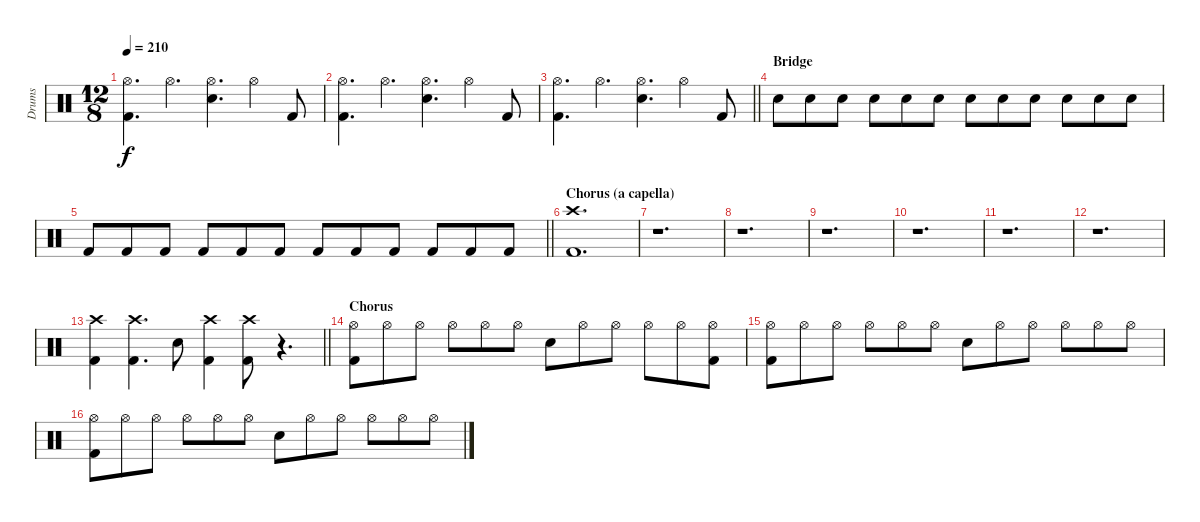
\track ("Drums" "Drums") {instrument percussion}
\staff {score}
\articulation defaults
\ts (12 8)
\tempo 210
\clef neutral
\ks c
("Hi-Hat (open)" "Kick (hit) 2").4{d dy f} "Hi-Hat (open)".4{d} ("Hi-Hat (open)" "Electric Snare (hit)").4{d} "Hi-Hat (open)".4 "Kick (hit) 2".8 |
("Hi-Hat (open)" "Kick (hit) 2").4{d} "Hi-Hat (open)".4{d} ("Hi-Hat (open)" "Electric Snare (hit)").4{d} "Hi-Hat (open)".4 "Kick (hit) 2".8 |
\barLineRight lightlight
("Hi-Hat (open)" "Kick (hit) 2").4{d} "Hi-Hat (open)".4{d} ("Hi-Hat (open)" "Electric Snare (hit)").4{d} "Hi-Hat (open)".4 "Kick (hit) 2".8 |
\section ("" "Bridge")
"Electric Snare (hit)".8 "Electric Snare (hit)".8 "Electric Snare (hit)".8 "Electric Snare (hit)".8 "Electric Snare (hit)".8 "Electric Snare (hit)".8 "Electric Snare (hit)".8 "Electric Snare (hit)".8 "Electric Snare (hit)".8 "Electric Snare (hit)".8 "Electric Snare (hit)".8 "Electric Snare (hit)".8 |
\barLineRight lightlight "Kick (hit) 2".8 "Kick (hit) 2".8 "Kick (hit) 2".8 "Kick (hit) 2".8 "Kick (hit) 2".8 "Kick (hit) 2".8 "Kick (hit) 2".8 "Kick (hit) 2".8 "Kick (hit) 2".8 "Kick (hit) 2".8 "Kick (hit) 2".8 "Kick (hit) 2".8
|
\section ("" "Chorus (a capella)")
("Crash high (hit)" "Kick (hit) 2").1{d} |
r.1{d} |
r.1{d} |
r.1{d} |
r.1{d} |
r.1{d} |
r.1{d} |
\barLineRight lightlight
("Crash high (hit)" "Kick (hit) 2").4{volume 16} ("Crash high (hit)" "Kick (hit) 2").4{d} "Electric Snare (hit)".8 ("Crash high (hit)" "Kick (hit) 2").4 ("Crash high (hit)" "Kick (hit) 2").8 r.4{d} |
\section ("" "Chorus")
("Hi-Hat (open)" "Kick (hit) 2").8 "Hi-Hat (open)".8 "Hi-Hat (open)".8 "Hi-Hat (open)".8 "Hi-Hat (open)".8 "Hi-Hat (open)".8 "Electric Snare (hit)".8 "Hi-Hat (open)".8 "Hi-Hat (open)".8 "Hi-Hat (open)".8 "Hi-Hat (open)".8 ("Hi-Hat (open)" "Kick (hit) 2").8 |
("Hi-Hat (open)" "Kick (hit) 2").8 "Hi-Hat (open)".8 "Hi-Hat (open)".8 "Hi-Hat (open)".8 "Hi-Hat (open)".8 "Hi-Hat (open)".8 "Electric Snare (hit)".8 "Hi-Hat (open)".8 "Hi-Hat (open)".8 "Hi-Hat (open)".8 "Hi-Hat (open)".8 "Hi-Hat (open)".8 |
("Hi-Hat (open)" "Kick (hit) 2").8 "Hi-Hat (open)".8 "Hi-Hat (open)".8 "Hi-Hat (open)".8 "Hi-Hat (open)".8 "Hi-Hat (open)".8 "Electric Snare (hit)".8 "Hi-Hat (open)".8 "Hi-Hat (open)".8 "Hi-Hat (open)".8 "Hi-Hat (open)".8 "Hi-Hat (open)".8
